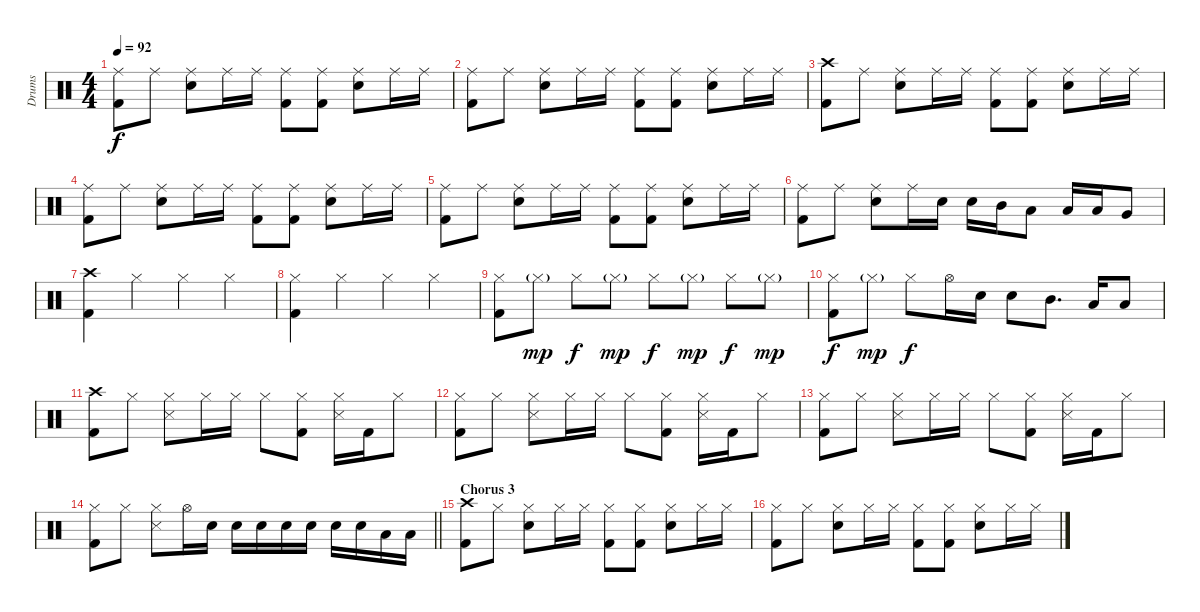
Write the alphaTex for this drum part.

\track ("Drums" "Drums") {instrument percussion}
\staff {score}
\articulation defaults
\ts (4 4)
\tempo 92
\clef neutral
\ks c
("Ride (middle)" "Kick (hit) 2").8{dy f} "Ride (middle)".8 ("Ride (middle)" "Snare (hit) 2").8 "Ride (middle)".16 "Ride (middle)".16 ("Ride (middle)" "Kick (hit) 2").8 ("Ride (middle)" "Kick (hit) 2").8 ("Ride (middle)" "Snare (hit) 2").8 "Ride (middle)".16 "Ride (middle)".16 |
("Ride (middle)" "Kick (hit) 2").8 "Ride (middle)".8 ("Ride (middle)" "Snare (hit) 2").8 "Ride (middle)".16 "Ride (middle)".16 ("Ride (middle)" "Kick (hit) 2").8 ("Ride (middle)" "Kick (hit) 2").8 ("Ride (middle)" "Snare (hit) 2").8 "Ride (middle)".16 "Ride (middle)".16 |
("Crash high (hit)" "Kick (hit) 2").8 "Ride (middle)".8 ("Ride (middle)" "Snare (hit) 2").8 "Ride (middle)".16 "Ride (middle)".16 ("Ride (middle)" "Kick (hit) 2").8 ("Ride (middle)" "Kick (hit) 2").8 ("Ride (middle)" "Snare (hit) 2").8 "Ride (middle)".16 "Ride (middle)".16 |
("Ride (middle)" "Kick (hit) 2").8 "Ride (middle)".8 ("Ride (middle)" "Snare (hit) 2").8 "Ride (middle)".16 "Ride (middle)".16 ("Ride (middle)" "Kick (hit) 2").8 ("Ride (middle)" "Kick (hit) 2").8 ("Ride (middle)" "Snare (hit) 2").8 "Ride (middle)".16 "Ride (middle)".16 |
("Ride (middle)" "Kick (hit) 2").8 "Ride (middle)".8 ("Ride (middle)" "Snare (hit) 2").8 "Ride (middle)".16 "Ride (middle)".16 ("Ride (middle)" "Kick (hit) 2").8 ("Ride (middle)" "Kick (hit) 2").8 ("Ride (middle)" "Snare (hit) 2").8 "Ride (middle)".16 "Ride (middle)".16 |
("Ride (middle)" "Kick (hit) 2").8 "Ride (middle)".8 ("Ride (middle)" "Snare (hit) 2").8 "Ride (middle)".16 "Snare (hit) 2".16 "Snare (hit) 2".16 "Mid Tom (hit)".16 "Low Tom (hit)".8 "Low Tom (hit)".16 "Low Tom (hit)".16 "Very Low Tom (hit)".8 |
("Crash high (hit)" "Kick (hit) 2").4 "Hi-Hat (closed)".4 "Hi-Hat (closed)".4 "Hi-Hat (closed)".4 |
("Hi-Hat (closed)" "Kick (hit) 2").4 "Hi-Hat (closed)".4 "Hi-Hat (closed)".4 "Hi-Hat (closed)".4 |
("Hi-Hat (closed)" "Kick (hit) 2").8 "Hi-Hat (closed)"{g}.8{dy mp} "Hi-Hat (closed)".8{dy f} "Hi-Hat (closed)"{g}.8{dy mp} "Hi-Hat (closed)".8{dy f} "Hi-Hat (closed)"{g}.8{dy mp} "Hi-Hat (closed)".8{dy f} "Hi-Hat (closed)"{g}.8{dy mp} |
("Hi-Hat (closed)" "Kick (hit) 2").8{dy f} "Hi-Hat (closed)"{g}.8{dy mp} "Hi-Hat (closed)".8{dy f} "Hi-Hat (open)".16 "Snare (hit) 2".16 "Snare (hit) 2".8 "Mid Tom (hit)".8{d} "Low Tom (hit)".16 "Low Tom (hit)".8 |
("Crash high (hit)" "Kick (hit) 2").8 "Hi-Hat (closed)".8 ("Hi-Hat (closed)" "Snare (side stick) 3").8 "Hi-Hat (closed)".16 "Hi-Hat (closed)".16 "Hi-Hat (closed)".8 ("Hi-Hat (closed)" "Kick (hit) 2").8 ("Hi-Hat (closed)" "Snare (side stick) 3").16 "Kick (hit) 2".16 "Hi-Hat (closed)".8 |
("Hi-Hat (closed)" "Kick (hit) 2").8 "Hi-Hat (closed)".8 ("Hi-Hat (closed)" "Snare (side stick) 3").8 "Hi-Hat (closed)".16 "Hi-Hat (closed)".16 "Hi-Hat (closed)".8 ("Hi-Hat (closed)" "Kick (hit) 2").8 ("Hi-Hat (closed)" "Snare (side stick) 3").16 "Kick (hit) 2".16 "Hi-Hat (closed)".8 |
("Hi-Hat (closed)" "Kick (hit) 2").8 "Hi-Hat (closed)".8 ("Hi-Hat (closed)" "Snare (side stick) 3").8 "Hi-Hat (closed)".16 "Hi-Hat (closed)".16 "Hi-Hat (closed)".8 ("Hi-Hat (closed)" "Kick (hit) 2").8 ("Hi-Hat (closed)" "Snare (side stick) 3").16 "Kick (hit) 2".16 "Hi-Hat (closed)".8 |
\barLineRight lightlight
("Hi-Hat (closed)" "Kick (hit) 2").8 "Hi-Hat (closed)".8 ("Hi-Hat (closed)" "Snare (side stick) 3").8 "Hi-Hat (open)".16 "Snare (hit) 2".16 "Snare (hit) 2".16 "Snare (hit) 2".16 "Snare (hit) 2".16 "Snare (hit) 2".16 "Snare (hit) 2".16 "Snare (hit) 2".16 "Low Tom (hit)".16 "Low Tom (hit)".16 |
\section ("" "Chorus 3")
("Crash high (hit)" "Kick (hit) 2").8 "Hi-Hat (closed)".8 ("Hi-Hat (closed)" "Snare (hit) 2").8 "Hi-Hat (closed)".16 "Hi-Hat (closed)".16 ("Hi-Hat (closed)" "Kick (hit) 2").8 ("Hi-Hat (closed)" "Kick (hit) 2").8 ("Hi-Hat (closed)" "Snare (hit) 2").8 "Hi-Hat (closed)".16 "Hi-Hat (closed)".16 |
("Hi-Hat (closed)" "Kick (hit) 2").8 "Hi-Hat (closed)".8 ("Hi-Hat (closed)" "Snare (hit) 2").8 "Hi-Hat (closed)".16 "Hi-Hat (closed)".16 ("Hi-Hat (closed)" "Kick (hit) 2").8 ("Hi-Hat (closed)" "Kick (hit) 2").8 ("Hi-Hat (closed)" "Snare (hit) 2").8 "Hi-Hat (closed)".16 "Hi-Hat (closed)".16
